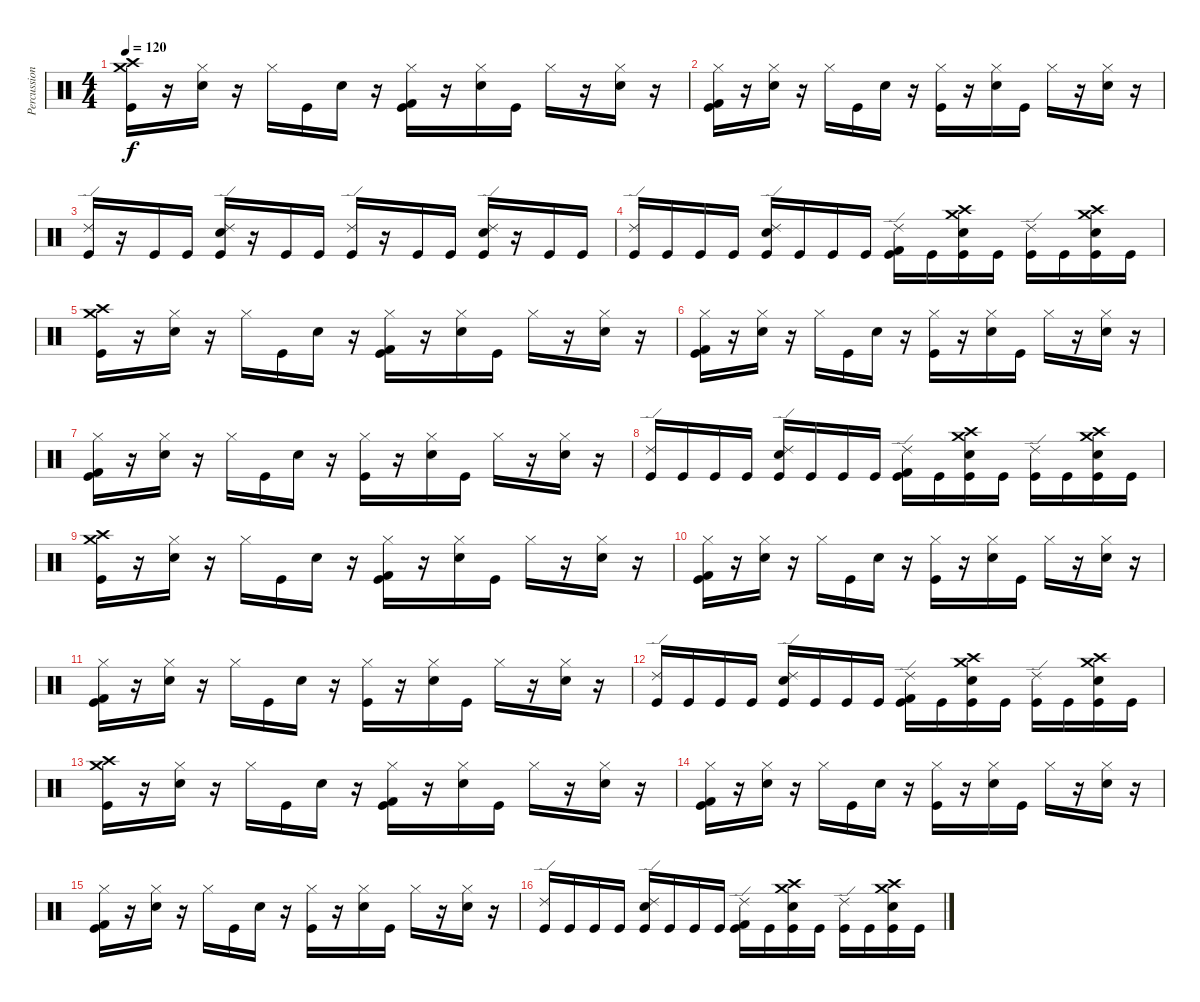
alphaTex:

\track ("Percussion" "Percussion") {instrument percussion}
\staff {score}
\articulation defaults
\ts (4 4)
\tempo 120
\clef neutral
\ks c
("Crash medium (hit)" "Crash high (hit)" "Kick (hit)").16{dy f} r.16 ("Hi-Hat (closed)" "Snare (hit) 2").16 r.16 "Hi-Hat (closed)".16 "Kick (hit)".16 "Snare (hit) 2".16 r.16 ("Hi-Hat (closed)" "Kick (hit) 2" "Kick (hit)").16 r.16 ("Hi-Hat (closed)" "Snare (hit) 2").16 "Kick (hit)".16 "Hi-Hat (closed)".16 r.16 ("Hi-Hat (closed)" "Snare (hit) 2").16 r.16 |
("Hi-Hat (closed)" "Kick (hit) 2" "Kick (hit)").16 r.16 ("Hi-Hat (closed)" "Snare (hit) 2").16 r.16 "Hi-Hat (closed)".16 "Kick (hit)".16 "Snare (hit) 2".16 r.16 ("Hi-Hat (closed)" "Kick (hit)").16 r.16 ("Hi-Hat (closed)" "Snare (hit) 2").16 "Kick (hit)".16 "Hi-Hat (closed)".16 r.16 ("Hi-Hat (closed)" "Snare (hit) 2").16 r.16 |
("Ride (edge) 2" "Kick (hit)").16 r.16 "Kick (hit)".16 "Kick (hit)".16 ("Snare (hit) 2" "Ride (edge) 2" "Kick (hit)").16 r.16 "Kick (hit)".16 "Kick (hit)".16 ("Ride (edge) 2" "Kick (hit)").16 r.16 "Kick (hit)".16 "Kick (hit)".16 ("Snare (hit) 2" "Ride (edge) 2" "Kick (hit)").16 r.16 "Kick (hit)".16 "Kick (hit)".16 |
("Ride (edge) 2" "Kick (hit)").16 "Kick (hit)".16 "Kick (hit)".16 "Kick (hit)".16 ("Snare (hit) 2" "Ride (edge) 2" "Kick (hit)").16 "Kick (hit)".16 "Kick (hit)".16 "Kick (hit)".16 ("Ride (edge) 2" "Kick (hit) 2" "Kick (hit)").16 "Kick (hit)".16 ("Crash high (hit)" "Snare (hit) 2" "Crash medium (hit)" "Kick (hit)").16 "Kick (hit)".16 ("Ride (edge) 2" "Kick (hit)").16 "Kick (hit)".16 ("Snare (hit) 2" "Crash high (hit)" "Crash medium (hit)" "Kick (hit)").16 "Kick (hit)".16 |
("Crash medium (hit)" "Crash high (hit)" "Kick (hit)").16 r.16 ("Hi-Hat (closed)" "Snare (hit) 2").16 r.16 "Hi-Hat (closed)".16 "Kick (hit)".16 "Snare (hit) 2".16 r.16 ("Hi-Hat (closed)" "Kick (hit) 2" "Kick (hit)").16 r.16 ("Hi-Hat (closed)" "Snare (hit) 2").16 "Kick (hit)".16 "Hi-Hat (closed)".16 r.16 ("Hi-Hat (closed)" "Snare (hit) 2").16 r.16 |
("Hi-Hat (closed)" "Kick (hit) 2" "Kick (hit)").16 r.16 ("Hi-Hat (closed)" "Snare (hit) 2").16 r.16 "Hi-Hat (closed)".16 "Kick (hit)".16 "Snare (hit) 2".16 r.16 ("Hi-Hat (closed)" "Kick (hit)").16 r.16 ("Hi-Hat (closed)" "Snare (hit) 2").16 "Kick (hit)".16 "Hi-Hat (closed)".16 r.16 ("Hi-Hat (closed)" "Snare (hit) 2").16 r.16 |
("Hi-Hat (closed)" "Kick (hit) 2" "Kick (hit)").16 r.16 ("Hi-Hat (closed)" "Snare (hit) 2").16 r.16 "Hi-Hat (closed)".16 "Kick (hit)".16 "Snare (hit) 2".16 r.16 ("Hi-Hat (closed)" "Kick (hit)").16 r.16 ("Hi-Hat (closed)" "Snare (hit) 2").16 "Kick (hit)".16 "Hi-Hat (closed)".16 r.16 ("Hi-Hat (closed)" "Snare (hit) 2").16 r.16 |
("Ride (edge) 2" "Kick (hit)").16 "Kick (hit)".16 "Kick (hit)".16 "Kick (hit)".16 ("Snare (hit) 2" "Ride (edge) 2" "Kick (hit)").16 "Kick (hit)".16 "Kick (hit)".16 "Kick (hit)".16 ("Ride (edge) 2" "Kick (hit) 2" "Kick (hit)").16 "Kick (hit)".16 ("Crash high (hit)" "Snare (hit) 2" "Crash medium (hit)" "Kick (hit)").16 "Kick (hit)".16 ("Ride (edge) 2" "Kick (hit)").16 "Kick (hit)".16 ("Snare (hit) 2" "Crash high (hit)" "Crash medium (hit)" "Kick (hit)").16 "Kick (hit)".16 |
("Crash medium (hit)" "Crash high (hit)" "Kick (hit)").16 r.16 ("Hi-Hat (closed)" "Snare (hit) 2").16 r.16 "Hi-Hat (closed)".16 "Kick (hit)".16 "Snare (hit) 2".16 r.16 ("Hi-Hat (closed)" "Kick (hit) 2" "Kick (hit)").16 r.16 ("Hi-Hat (closed)" "Snare (hit) 2").16 "Kick (hit)".16 "Hi-Hat (closed)".16 r.16 ("Hi-Hat (closed)" "Snare (hit) 2").16 r.16 |
("Hi-Hat (closed)" "Kick (hit) 2" "Kick (hit)").16 r.16 ("Hi-Hat (closed)" "Snare (hit) 2").16 r.16 "Hi-Hat (closed)".16 "Kick (hit)".16 "Snare (hit) 2".16 r.16 ("Hi-Hat (closed)" "Kick (hit)").16 r.16 ("Hi-Hat (closed)" "Snare (hit) 2").16 "Kick (hit)".16 "Hi-Hat (closed)".16 r.16 ("Hi-Hat (closed)" "Snare (hit) 2").16 r.16 |
("Hi-Hat (closed)" "Kick (hit) 2" "Kick (hit)").16 r.16 ("Hi-Hat (closed)" "Snare (hit) 2").16 r.16 "Hi-Hat (closed)".16 "Kick (hit)".16 "Snare (hit) 2".16 r.16 ("Hi-Hat (closed)" "Kick (hit)").16 r.16 ("Hi-Hat (closed)" "Snare (hit) 2").16 "Kick (hit)".16 "Hi-Hat (closed)".16 r.16 ("Hi-Hat (closed)" "Snare (hit) 2").16 r.16 |
("Ride (edge) 2" "Kick (hit)").16 "Kick (hit)".16 "Kick (hit)".16 "Kick (hit)".16 ("Snare (hit) 2" "Ride (edge) 2" "Kick (hit)").16 "Kick (hit)".16 "Kick (hit)".16 "Kick (hit)".16 ("Ride (edge) 2" "Kick (hit) 2" "Kick (hit)").16 "Kick (hit)".16 ("Crash high (hit)" "Snare (hit) 2" "Crash medium (hit)" "Kick (hit)").16 "Kick (hit)".16 ("Ride (edge) 2" "Kick (hit)").16 "Kick (hit)".16 ("Snare (hit) 2" "Crash high (hit)" "Crash medium (hit)" "Kick (hit)").16 "Kick (hit)".16 |
("Crash medium (hit)" "Crash high (hit)" "Kick (hit)").16 r.16 ("Hi-Hat (closed)" "Snare (hit) 2").16 r.16 "Hi-Hat (closed)".16 "Kick (hit)".16 "Snare (hit) 2".16 r.16 ("Hi-Hat (closed)" "Kick (hit) 2" "Kick (hit)").16 r.16 ("Hi-Hat (closed)" "Snare (hit) 2").16 "Kick (hit)".16 "Hi-Hat (closed)".16 r.16 ("Hi-Hat (closed)" "Snare (hit) 2").16 r.16 |
("Hi-Hat (closed)" "Kick (hit) 2" "Kick (hit)").16 r.16 ("Hi-Hat (closed)" "Snare (hit) 2").16 r.16 "Hi-Hat (closed)".16 "Kick (hit)".16 "Snare (hit) 2".16 r.16 ("Hi-Hat (closed)" "Kick (hit)").16 r.16 ("Hi-Hat (closed)" "Snare (hit) 2").16 "Kick (hit)".16 "Hi-Hat (closed)".16 r.16 ("Hi-Hat (closed)" "Snare (hit) 2").16 r.16 |
("Hi-Hat (closed)" "Kick (hit) 2" "Kick (hit)").16 r.16 ("Hi-Hat (closed)" "Snare (hit) 2").16 r.16 "Hi-Hat (closed)".16 "Kick (hit)".16 "Snare (hit) 2".16 r.16 ("Hi-Hat (closed)" "Kick (hit)").16 r.16 ("Hi-Hat (closed)" "Snare (hit) 2").16 "Kick (hit)".16 "Hi-Hat (closed)".16 r.16 ("Hi-Hat (closed)" "Snare (hit) 2").16 r.16 |
("Ride (edge) 2" "Kick (hit)").16 "Kick (hit)".16 "Kick (hit)".16 "Kick (hit)".16 ("Snare (hit) 2" "Ride (edge) 2" "Kick (hit)").16 "Kick (hit)".16 "Kick (hit)".16 "Kick (hit)".16 ("Ride (edge) 2" "Kick (hit) 2" "Kick (hit)").16 "Kick (hit)".16 ("Crash high (hit)" "Snare (hit) 2" "Crash medium (hit)" "Kick (hit)").16 "Kick (hit)".16 ("Ride (edge) 2" "Kick (hit)").16 "Kick (hit)".16 ("Snare (hit) 2" "Crash high (hit)" "Crash medium (hit)" "Kick (hit)").16 "Kick (hit)".16
